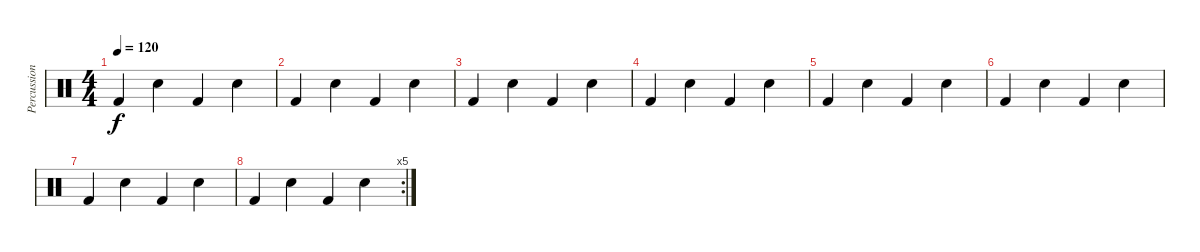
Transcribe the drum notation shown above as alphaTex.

\track ("Percussions" "Percussion") {instrument percussion}
\staff {score}
\articulation defaults
\ts (4 4)
\tempo 120
\clef neutral
\ks c "Kick (hit) 2".4{dy f} "Snare (hit) 2".4 "Kick (hit) 2".4 "Snare (hit) 2".4
|
"Kick (hit) 2".4 "Snare (hit) 2".4 "Kick (hit) 2".4 "Snare (hit) 2".4 |
"Kick (hit) 2".4 "Snare (hit) 2".4 "Kick (hit) 2".4 "Snare (hit) 2".4 |
"Kick (hit) 2".4 "Snare (hit) 2".4 "Kick (hit) 2".4 "Snare (hit) 2".4 |
"Kick (hit) 2".4 "Snare (hit) 2".4 "Kick (hit) 2".4 "Snare (hit) 2".4 |
"Kick (hit) 2".4 "Snare (hit) 2".4 "Kick (hit) 2".4 "Snare (hit) 2".4 |
"Kick (hit) 2".4 "Snare (hit) 2".4 "Kick (hit) 2".4 "Snare (hit) 2".4 |
\rc 5 "Kick (hit) 2".4 "Snare (hit) 2".4 "Kick (hit) 2".4 "Snare (hit) 2".4
